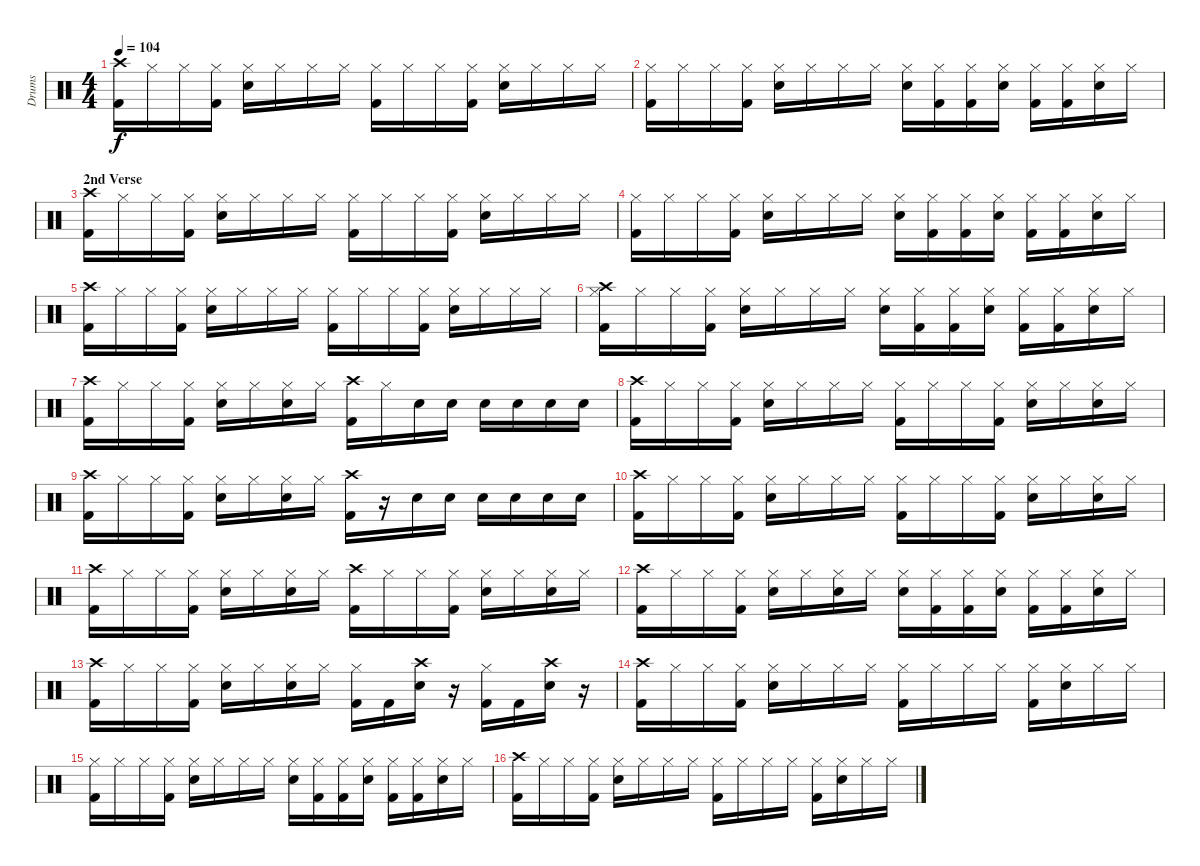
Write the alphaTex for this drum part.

\track ("Drums" "Drums") {instrument percussion}
\staff {score}
\articulation defaults
\ts (4 4)
\tempo 104
\clef neutral
\ks c
("Crash high (hit)" "Kick (hit) 2").16{dy f} "Hi-Hat (closed)".16 "Hi-Hat (closed)".16 ("Hi-Hat (closed)" "Kick (hit) 2").16 ("Hi-Hat (closed)" "Snare (hit) 2").16 "Hi-Hat (closed)".16 "Hi-Hat (closed)".16 "Hi-Hat (closed)".16 ("Hi-Hat (closed)" "Kick (hit) 2").16 "Hi-Hat (closed)".16 "Hi-Hat (closed)".16 ("Hi-Hat (closed)" "Kick (hit) 2").16 ("Hi-Hat (closed)" "Snare (hit) 2").16 "Hi-Hat (closed)".16 "Hi-Hat (closed)".16 "Hi-Hat (closed)".16 |
("Hi-Hat (closed)" "Kick (hit) 2").16 "Hi-Hat (closed)".16 "Hi-Hat (closed)".16 ("Hi-Hat (closed)" "Kick (hit) 2").16 ("Hi-Hat (closed)" "Snare (hit) 2").16 "Hi-Hat (closed)".16 "Hi-Hat (closed)".16 "Hi-Hat (closed)".16 ("Hi-Hat (closed)" "Snare (hit) 2").16 ("Hi-Hat (closed)" "Kick (hit) 2").16 ("Hi-Hat (closed)" "Kick (hit) 2").16 ("Hi-Hat (closed)" "Snare (hit) 2").16 ("Hi-Hat (closed)" "Kick (hit) 2").16 ("Hi-Hat (closed)" "Kick (hit) 2").16 ("Hi-Hat (closed)" "Snare (hit) 2").16 "Hi-Hat (closed)".16 |
\section ("" "2nd Verse")
("Crash high (hit)" "Kick (hit) 2").16 "Hi-Hat (closed)".16 "Hi-Hat (closed)".16 ("Hi-Hat (closed)" "Kick (hit) 2").16 ("Hi-Hat (closed)" "Snare (hit) 2").16 "Hi-Hat (closed)".16 "Hi-Hat (closed)".16 "Hi-Hat (closed)".16 ("Hi-Hat (closed)" "Kick (hit) 2").16 "Hi-Hat (closed)".16 "Hi-Hat (closed)".16 ("Hi-Hat (closed)" "Kick (hit) 2").16 ("Hi-Hat (closed)" "Snare (hit) 2").16 "Hi-Hat (closed)".16 "Hi-Hat (closed)".16 "Hi-Hat (closed)".16 |
("Hi-Hat (closed)" "Kick (hit) 2").16 "Hi-Hat (closed)".16 "Hi-Hat (closed)".16 ("Hi-Hat (closed)" "Kick (hit) 2").16 ("Hi-Hat (closed)" "Snare (hit) 2").16 "Hi-Hat (closed)".16 "Hi-Hat (closed)".16 "Hi-Hat (closed)".16 ("Hi-Hat (closed)" "Snare (hit) 2").16 ("Hi-Hat (closed)" "Kick (hit) 2").16 ("Hi-Hat (closed)" "Kick (hit) 2").16 ("Hi-Hat (closed)" "Snare (hit) 2").16 ("Hi-Hat (closed)" "Kick (hit) 2").16 ("Hi-Hat (closed)" "Kick (hit) 2").16 ("Hi-Hat (closed)" "Snare (hit) 2").16 "Hi-Hat (closed)".16 |
("Crash high (hit)" "Kick (hit) 2").16 "Hi-Hat (closed)".16 "Hi-Hat (closed)".16 ("Hi-Hat (closed)" "Kick (hit) 2").16 ("Hi-Hat (closed)" "Snare (hit) 2").16 "Hi-Hat (closed)".16 "Hi-Hat (closed)".16 "Hi-Hat (closed)".16 ("Hi-Hat (closed)" "Kick (hit) 2").16 "Hi-Hat (closed)".16 "Hi-Hat (closed)".16 ("Hi-Hat (closed)" "Kick (hit) 2").16 ("Hi-Hat (closed)" "Snare (hit) 2").16 "Hi-Hat (closed)".16 "Hi-Hat (closed)".16 "Hi-Hat (closed)".16 |
("Crash high (hit)" "Hi-Hat (closed)" "Kick (hit) 2").16 "Hi-Hat (closed)".16 "Hi-Hat (closed)".16 ("Hi-Hat (closed)" "Kick (hit) 2").16 ("Hi-Hat (closed)" "Snare (hit) 2").16 "Hi-Hat (closed)".16 "Hi-Hat (closed)".16 "Hi-Hat (closed)".16 ("Hi-Hat (closed)" "Snare (hit) 2").16 ("Hi-Hat (closed)" "Kick (hit) 2").16 ("Hi-Hat (closed)" "Kick (hit) 2").16 ("Hi-Hat (closed)" "Snare (hit) 2").16 ("Hi-Hat (closed)" "Kick (hit) 2").16 ("Hi-Hat (closed)" "Kick (hit) 2").16 ("Hi-Hat (closed)" "Snare (hit) 2").16 "Hi-Hat (closed)".16 |
("Crash high (hit)" "Kick (hit) 2").16 "Hi-Hat (closed)".16 "Hi-Hat (closed)".16 ("Hi-Hat (closed)" "Kick (hit) 2").16 ("Hi-Hat (closed)" "Snare (hit) 2").16 "Hi-Hat (closed)".16 ("Hi-Hat (closed)" "Snare (hit) 2").16 "Hi-Hat (closed)".16 ("Crash high (hit)" "Kick (hit) 2").16 "Hi-Hat (closed)".16 "Snare (hit) 2".16 "Snare (hit) 2".16 "Snare (hit) 2".16 "Snare (hit) 2".16 "Snare (hit) 2".16 "Snare (hit) 2".16 |
("Crash high (hit)" "Kick (hit) 2").16 "Hi-Hat (closed)".16 "Hi-Hat (closed)".16 ("Hi-Hat (closed)" "Kick (hit) 2").16 ("Hi-Hat (closed)" "Snare (hit) 2").16 "Hi-Hat (closed)".16 "Hi-Hat (closed)".16 "Hi-Hat (closed)".16 ("Hi-Hat (closed)" "Kick (hit) 2").16 "Hi-Hat (closed)".16 "Hi-Hat (closed)".16 ("Hi-Hat (closed)" "Kick (hit) 2").16 ("Hi-Hat (closed)" "Snare (hit) 2").16 "Hi-Hat (closed)".16 ("Hi-Hat (closed)" "Snare (hit) 2").16 "Hi-Hat (closed)".16 |
("Crash high (hit)" "Kick (hit) 2").16 "Hi-Hat (closed)".16 "Hi-Hat (closed)".16 ("Hi-Hat (closed)" "Kick (hit) 2").16 ("Hi-Hat (closed)" "Snare (hit) 2").16 "Hi-Hat (closed)".16 ("Hi-Hat (closed)" "Snare (hit) 2").16 "Hi-Hat (closed)".16 ("Crash high (hit)" "Kick (hit) 2").16 r.16 "Snare (hit) 2".16 "Snare (hit) 2".16 "Snare (hit) 2".16 "Snare (hit) 2".16 "Snare (hit) 2".16 "Snare (hit) 2".16 |
("Crash high (hit)" "Kick (hit) 2").16 "Hi-Hat (closed)".16 "Hi-Hat (closed)".16 ("Hi-Hat (closed)" "Kick (hit) 2").16 ("Hi-Hat (closed)" "Snare (hit) 2").16 "Hi-Hat (closed)".16 "Hi-Hat (closed)".16 "Hi-Hat (closed)".16 ("Hi-Hat (closed)" "Kick (hit) 2").16 "Hi-Hat (closed)".16 "Hi-Hat (closed)".16 ("Hi-Hat (closed)" "Kick (hit) 2").16 ("Hi-Hat (closed)" "Snare (hit) 2").16 "Hi-Hat (closed)".16 ("Hi-Hat (closed)" "Snare (hit) 2").16 "Hi-Hat (closed)".16 |
("Crash high (hit)" "Kick (hit) 2").16 "Hi-Hat (closed)".16 "Hi-Hat (closed)".16 ("Hi-Hat (closed)" "Kick (hit) 2").16 ("Hi-Hat (closed)" "Snare (hit) 2").16 "Hi-Hat (closed)".16 ("Hi-Hat (closed)" "Snare (hit) 2").16 "Hi-Hat (closed)".16 ("Crash high (hit)" "Kick (hit) 2").16 "Hi-Hat (closed)".16 "Hi-Hat (closed)".16 ("Hi-Hat (closed)" "Kick (hit) 2").16 ("Hi-Hat (closed)" "Snare (hit) 2").16 "Hi-Hat (closed)".16 ("Hi-Hat (closed)" "Snare (hit) 2").16 "Hi-Hat (closed)".16 |
("Crash high (hit)" "Kick (hit) 2").16 "Hi-Hat (closed)".16 "Hi-Hat (closed)".16 ("Hi-Hat (closed)" "Kick (hit) 2").16 ("Hi-Hat (closed)" "Snare (hit) 2").16 "Hi-Hat (closed)".16 ("Hi-Hat (closed)" "Snare (hit) 2").16 "Hi-Hat (closed)".16 ("Hi-Hat (closed)" "Snare (hit) 2").16 ("Hi-Hat (closed)" "Kick (hit) 2").16 ("Hi-Hat (closed)" "Kick (hit) 2").16 ("Hi-Hat (closed)" "Snare (hit) 2").16 ("Hi-Hat (closed)" "Kick (hit) 2").16 ("Hi-Hat (closed)" "Kick (hit) 2").16 ("Hi-Hat (closed)" "Snare (hit) 2").16 "Hi-Hat (closed)".16 |
("Crash high (hit)" "Kick (hit) 2").16 "Hi-Hat (closed)".16 "Hi-Hat (closed)".16 ("Hi-Hat (closed)" "Kick (hit) 2").16 ("Hi-Hat (closed)" "Snare (hit) 2").16 "Hi-Hat (closed)".16 ("Hi-Hat (closed)" "Snare (hit) 2").16 "Hi-Hat (closed)".16 ("Hi-Hat (closed)" "Kick (hit) 2").16 "Kick (hit) 2".16 ("Crash high (hit)" "Snare (hit) 2").16 r.16 ("Hi-Hat (closed)" "Kick (hit) 2").16 "Kick (hit) 2".16 ("Crash high (hit)" "Snare (hit) 2").16 r.16 |
("Crash high (hit)" "Kick (hit) 2").16 "Hi-Hat (closed)".16 "Hi-Hat (closed)".16 ("Hi-Hat (closed)" "Kick (hit) 2").16 ("Hi-Hat (closed)" "Snare (hit) 2").16 "Hi-Hat (closed)".16 "Hi-Hat (closed)".16 "Hi-Hat (closed)".16 ("Hi-Hat (closed)" "Kick (hit) 2").16 "Hi-Hat (closed)".16 "Hi-Hat (closed)".16 "Hi-Hat (closed)".16 ("Hi-Hat (closed)" "Kick (hit) 2").16 ("Hi-Hat (closed)" "Snare (hit) 2").16 "Hi-Hat (closed)".16 "Hi-Hat (closed)".16 |
("Hi-Hat (closed)" "Kick (hit) 2").16 "Hi-Hat (closed)".16 "Hi-Hat (closed)".16 ("Hi-Hat (closed)" "Kick (hit) 2").16 ("Hi-Hat (closed)" "Snare (hit) 2").16 "Hi-Hat (closed)".16 "Hi-Hat (closed)".16 "Hi-Hat (closed)".16 ("Hi-Hat (closed)" "Snare (hit) 2").16 ("Hi-Hat (closed)" "Kick (hit) 2").16 ("Hi-Hat (closed)" "Kick (hit) 2").16 ("Hi-Hat (closed)" "Snare (hit) 2").16 ("Hi-Hat (closed)" "Kick (hit) 2").16 ("Hi-Hat (closed)" "Kick (hit) 2").16 ("Hi-Hat (closed)" "Snare (hit) 2").16 "Hi-Hat (closed)".16 |
("Crash high (hit)" "Kick (hit) 2").16 "Hi-Hat (closed)".16 "Hi-Hat (closed)".16 ("Hi-Hat (closed)" "Kick (hit) 2").16 ("Hi-Hat (closed)" "Snare (hit) 2").16 "Hi-Hat (closed)".16 "Hi-Hat (closed)".16 "Hi-Hat (closed)".16 ("Hi-Hat (closed)" "Kick (hit) 2").16 "Hi-Hat (closed)".16 "Hi-Hat (closed)".16 "Hi-Hat (closed)".16 ("Hi-Hat (closed)" "Kick (hit) 2").16 ("Hi-Hat (closed)" "Snare (hit) 2").16 "Hi-Hat (closed)".16 "Hi-Hat (closed)".16
